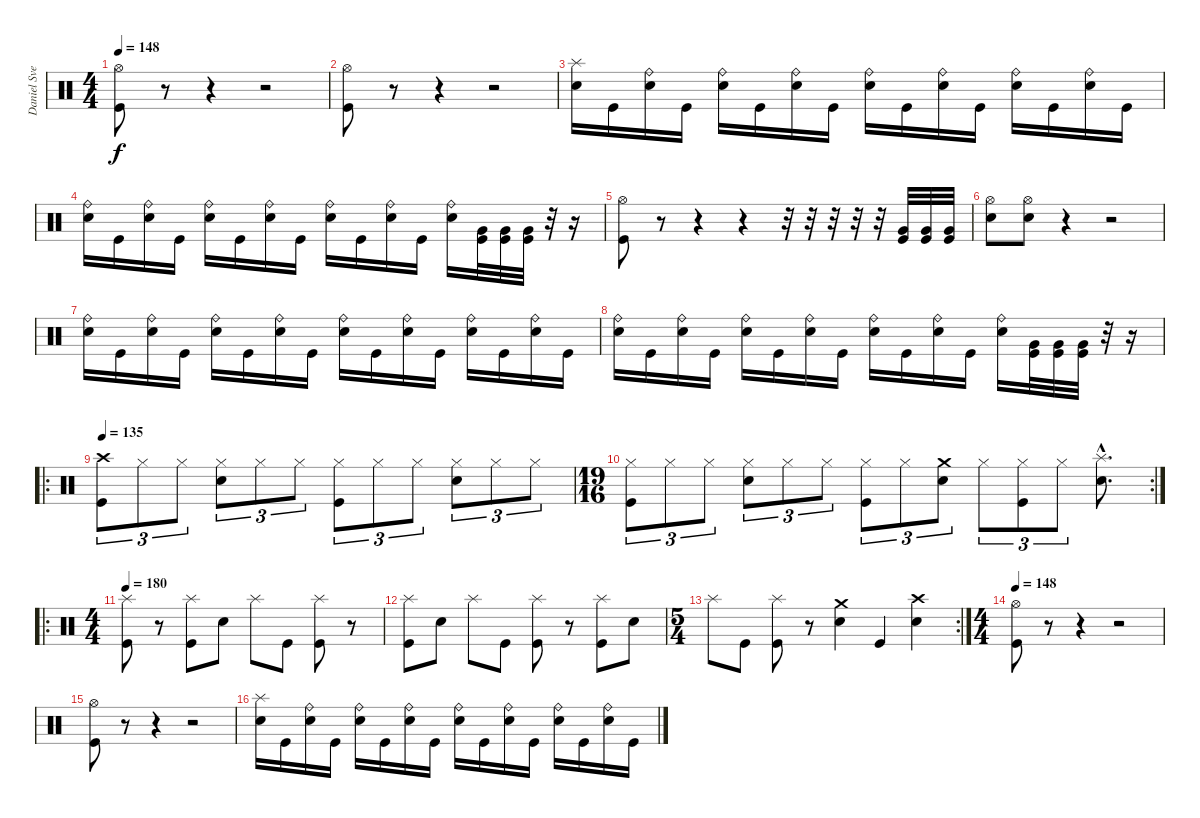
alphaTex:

\track ("Daniel Svenson" "Daniel Sve") {instrument percussion}
\staff {score}
\articulation defaults
\ts (4 4)
\tempo 148
\clef neutral
\ks c
("Kick (hit)" "Hi-Hat (open)").8{dy f} r.8 r.4 r.2 |
("Kick (hit)" "Hi-Hat (open)").8 r.8 r.4 r.2 |
("Electric Snare (hit)" "Splash (hit)").16 "Kick (hit)".16 ("Electric Snare (hit)" "Ride (bell)").16 "Kick (hit)".16 ("Electric Snare (hit)" "Ride (bell)").16 "Kick (hit)".16 ("Electric Snare (hit)" "Ride (bell)").16 "Kick (hit)".16 ("Electric Snare (hit)" "Ride (bell)").16 "Kick (hit)".16 ("Electric Snare (hit)" "Ride (bell)").16 "Kick (hit)".16 ("Electric Snare (hit)" "Ride (bell)").16 "Kick (hit)".16 ("Electric Snare (hit)" "Ride (bell)").16 "Kick (hit)".16 |
("Electric Snare (hit)" "Ride (bell)").16 "Kick (hit)".16 ("Electric Snare (hit)" "Ride (bell)").16 "Kick (hit)".16 ("Electric Snare (hit)" "Ride (bell)").16 "Kick (hit)".16 ("Electric Snare (hit)" "Ride (bell)").16 "Kick (hit)".16 ("Electric Snare (hit)" "Ride (bell)").16 "Kick (hit)".16 ("Electric Snare (hit)" "Ride (bell)").16 "Kick (hit)".16 ("Electric Snare (hit)" "Ride (bell)").16 ("Kick (hit)" "Very Low Tom (hit)").32 ("Kick (hit)" "Very Low Tom (hit)").32 ("Kick (hit)" "Very Low Tom (hit)").32 r.32 r.16 |
("Kick (hit)" "Hi-Hat (open)").8 r.8 r.4 r.4 r.32 r.32 r.32 r.32 r.32 ("Kick (hit)" "Very Low Tom (hit)").32 ("Kick (hit)" "Very Low Tom (hit)").32 ("Kick (hit)" "Very Low Tom (hit)").32 |
("Electric Snare (hit)" "Hi-Hat (open)").8 ("Electric Snare (hit)" "Hi-Hat (open)").8 r.4 r.2 |
("Electric Snare (hit)" "Ride (bell)").16 "Kick (hit)".16 ("Electric Snare (hit)" "Ride (bell)").16 "Kick (hit)".16 ("Electric Snare (hit)" "Ride (bell)").16 "Kick (hit)".16 ("Electric Snare (hit)" "Ride (bell)").16 "Kick (hit)".16 ("Electric Snare (hit)" "Ride (bell)").16 "Kick (hit)".16 ("Electric Snare (hit)" "Ride (bell)").16 "Kick (hit)".16 ("Electric Snare (hit)" "Ride (bell)").16 "Kick (hit)".16 ("Electric Snare (hit)" "Ride (bell)").16 "Kick (hit)".16 |
("Electric Snare (hit)" "Ride (bell)").16 "Kick (hit)".16 ("Electric Snare (hit)" "Ride (bell)").16 "Kick (hit)".16 ("Electric Snare (hit)" "Ride (bell)").16 "Kick (hit)".16 ("Electric Snare (hit)" "Ride (bell)").16 "Kick (hit)".16 ("Electric Snare (hit)" "Ride (bell)").16 "Kick (hit)".16 ("Electric Snare (hit)" "Ride (bell)").16 "Kick (hit)".16 ("Electric Snare (hit)" "Ride (bell)").16 ("Kick (hit)" "Very Low Tom (hit)").32 ("Kick (hit)" "Very Low Tom (hit)").32 ("Kick (hit)" "Very Low Tom (hit)").32 r.32 r.16 |
\ro
\tempo 135
("Kick (hit)" "Crash high (hit)").8{tu (3 2)} "Hi-Hat (closed)".8{tu (3 2)} "Hi-Hat (closed)".8{tu (3 2)} ("Electric Snare (hit)" "Hi-Hat (closed)").8{tu (3 2)} "Hi-Hat (closed)".8{tu (3 2)} "Hi-Hat (closed)".8{tu (3 2)} ("Kick (hit)" "Hi-Hat (closed)").8{tu (3 2)} "Hi-Hat (closed)".8{tu (3 2)} "Hi-Hat (closed)".8{tu (3 2)} ("Electric Snare (hit)" "Hi-Hat (closed)").8{tu (3 2)} "Hi-Hat (closed)".8{tu (3 2)} "Hi-Hat (closed)".8{tu (3 2)} |
\rc 2
\ts (19 16)
("Kick (hit)" "Hi-Hat (closed)").8{tu (3 2)} "Hi-Hat (closed)".8{tu (3 2)} "Hi-Hat (closed)".8{tu (3 2)} ("Electric Snare (hit)" "Hi-Hat (closed)").8{tu (3 2)} "Hi-Hat (closed)".8{tu (3 2)} "Hi-Hat (closed)".8{tu (3 2)} ("Kick (hit)" "Hi-Hat (closed)").8{tu (3 2)} "Hi-Hat (closed)".8{tu (3 2)} ("Electric Snare (hit)" "Crash medium (hit)").8{tu (3 2)} "Hi-Hat (closed)".8{tu (3 2)} ("Kick (hit)" "Hi-Hat (closed)").8{tu (3 2)} "Hi-Hat (closed)".8{tu (3 2)} ("Electric Snare (hit)"{hac} "Splash (hit)"{hac}).8{d} |
\ro
\ts (4 4)
\tempo 180
("Kick (hit)" "Splash (hit)").8 r.8 ("Kick (hit)" "Splash (hit)").8 "Electric Snare (hit)".8 "Splash (hit)".8 "Kick (hit)".8 ("Kick (hit)" "Splash (hit)").8 r.8 |
("Kick (hit)" "Splash (hit)").8 "Electric Snare (hit)".8 "Splash (hit)".8 "Kick (hit)".8 ("Kick (hit)" "Splash (hit)").8 r.8 ("Kick (hit)" "Splash (hit)").8 "Electric Snare (hit)".8 |
\rc 2
\ts (5 4)
"Splash (hit)".8 "Kick (hit)".8 ("Kick (hit)" "Splash (hit)").8 r.8 ("Electric Snare (hit)" "Crash medium (hit)").4 "Kick (hit)".4 ("Electric Snare (hit)" "Crash high (hit)").4 |
\ts (4 4)
\tempo 148
("Kick (hit)" "Hi-Hat (open)").8 r.8 r.4 r.2 |
("Kick (hit)" "Hi-Hat (open)").8 r.8 r.4 r.2 |
("Electric Snare (hit)" "Splash (hit)").16 "Kick (hit)".16 ("Electric Snare (hit)" "Ride (bell)").16 "Kick (hit)".16 ("Electric Snare (hit)" "Ride (bell)").16 "Kick (hit)".16 ("Electric Snare (hit)" "Ride (bell)").16 "Kick (hit)".16 ("Electric Snare (hit)" "Ride (bell)").16 "Kick (hit)".16 ("Electric Snare (hit)" "Ride (bell)").16 "Kick (hit)".16 ("Electric Snare (hit)" "Ride (bell)").16 "Kick (hit)".16 ("Electric Snare (hit)" "Ride (bell)").16 "Kick (hit)".16
